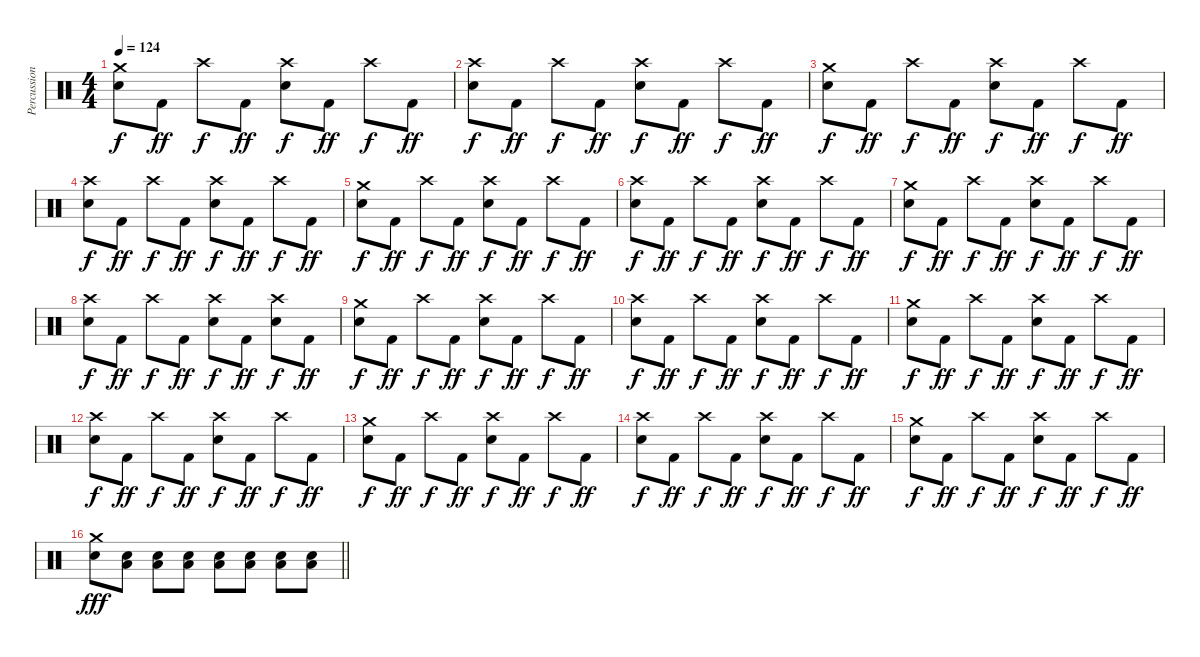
\track ("Percussion" "Percussion") {instrument percussion}
\staff {score}
\articulation defaults
\ts (4 4)
\tempo 124
\clef neutral
\ks c
("Crash medium (hit)" "Electric Snare (hit)").8{dy f} "Kick (hit) 2".8{dy ff} "Crash high (hit)".8{dy f} "Kick (hit) 2".8{dy ff} ("Crash high (hit)" "Electric Snare (hit)").8{dy f} "Kick (hit) 2".8{dy ff} "Crash high (hit)".8{dy f} "Kick (hit) 2".8{dy ff} |
("Crash high (hit)" "Electric Snare (hit)").8{dy f} "Kick (hit) 2".8{dy ff} "Crash high (hit)".8{dy f} "Kick (hit) 2".8{dy ff} ("Crash high (hit)" "Electric Snare (hit)").8{dy f} "Kick (hit) 2".8{dy ff} "Crash high (hit)".8{dy f} "Kick (hit) 2".8{dy ff} |
("Crash medium (hit)" "Electric Snare (hit)").8{dy f} "Kick (hit) 2".8{dy ff} "Crash high (hit)".8{dy f} "Kick (hit) 2".8{dy ff} ("Crash high (hit)" "Electric Snare (hit)").8{dy f} "Kick (hit) 2".8{dy ff} "Crash high (hit)".8{dy f} "Kick (hit) 2".8{dy ff} |
("Crash high (hit)" "Electric Snare (hit)").8{dy f} "Kick (hit) 2".8{dy ff} "Crash high (hit)".8{dy f} "Kick (hit) 2".8{dy ff} ("Crash high (hit)" "Electric Snare (hit)").8{dy f} "Kick (hit) 2".8{dy ff} "Crash high (hit)".8{dy f} "Kick (hit) 2".8{dy ff} |
("Crash medium (hit)" "Electric Snare (hit)").8{dy f} "Kick (hit) 2".8{dy ff} "Crash high (hit)".8{dy f} "Kick (hit) 2".8{dy ff} ("Crash high (hit)" "Electric Snare (hit)").8{dy f} "Kick (hit) 2".8{dy ff} "Crash high (hit)".8{dy f} "Kick (hit) 2".8{dy ff} |
("Crash high (hit)" "Electric Snare (hit)").8{dy f} "Kick (hit) 2".8{dy ff} "Crash high (hit)".8{dy f} "Kick (hit) 2".8{dy ff} ("Crash high (hit)" "Electric Snare (hit)").8{dy f} "Kick (hit) 2".8{dy ff} "Crash high (hit)".8{dy f} "Kick (hit) 2".8{dy ff} |
("Crash medium (hit)" "Electric Snare (hit)").8{dy f} "Kick (hit) 2".8{dy ff} "Crash high (hit)".8{dy f} "Kick (hit) 2".8{dy ff} ("Crash high (hit)" "Electric Snare (hit)").8{dy f} "Kick (hit) 2".8{dy ff} "Crash high (hit)".8{dy f} "Kick (hit) 2".8{dy ff} |
("Crash high (hit)" "Electric Snare (hit)").8{dy f} "Kick (hit) 2".8{dy ff} "Crash high (hit)".8{dy f} "Kick (hit) 2".8{dy ff} ("Crash high (hit)" "Electric Snare (hit)").8{dy f} "Kick (hit) 2".8{dy ff} ("Crash high (hit)" "Electric Snare (hit)").8{dy f} "Kick (hit) 2".8{dy ff} |
("Crash medium (hit)" "Electric Snare (hit)").8{dy f} "Kick (hit) 2".8{dy ff} "Crash high (hit)".8{dy f} "Kick (hit) 2".8{dy ff} ("Crash high (hit)" "Electric Snare (hit)").8{dy f} "Kick (hit) 2".8{dy ff} "Crash high (hit)".8{dy f} "Kick (hit) 2".8{dy ff} |
("Crash high (hit)" "Electric Snare (hit)").8{dy f} "Kick (hit) 2".8{dy ff} "Crash high (hit)".8{dy f} "Kick (hit) 2".8{dy ff} ("Crash high (hit)" "Electric Snare (hit)").8{dy f} "Kick (hit) 2".8{dy ff} "Crash high (hit)".8{dy f} "Kick (hit) 2".8{dy ff} |
("Crash medium (hit)" "Electric Snare (hit)").8{dy f} "Kick (hit) 2".8{dy ff} "Crash high (hit)".8{dy f} "Kick (hit) 2".8{dy ff} ("Crash high (hit)" "Electric Snare (hit)").8{dy f} "Kick (hit) 2".8{dy ff} "Crash high (hit)".8{dy f} "Kick (hit) 2".8{dy ff} |
("Crash high (hit)" "Electric Snare (hit)").8{dy f} "Kick (hit) 2".8{dy ff} "Crash high (hit)".8{dy f} "Kick (hit) 2".8{dy ff} ("Crash high (hit)" "Electric Snare (hit)").8{dy f} "Kick (hit) 2".8{dy ff} "Crash high (hit)".8{dy f} "Kick (hit) 2".8{dy ff} |
("Crash medium (hit)" "Electric Snare (hit)").8{dy f} "Kick (hit) 2".8{dy ff} "Crash high (hit)".8{dy f} "Kick (hit) 2".8{dy ff} ("Crash high (hit)" "Electric Snare (hit)").8{dy f} "Kick (hit) 2".8{dy ff} "Crash high (hit)".8{dy f} "Kick (hit) 2".8{dy ff} |
("Crash high (hit)" "Electric Snare (hit)").8{dy f} "Kick (hit) 2".8{dy ff} "Crash high (hit)".8{dy f} "Kick (hit) 2".8{dy ff} ("Crash high (hit)" "Electric Snare (hit)").8{dy f} "Kick (hit) 2".8{dy ff} "Crash high (hit)".8{dy f} "Kick (hit) 2".8{dy ff} |
("Crash medium (hit)" "Electric Snare (hit)").8{dy f} "Kick (hit) 2".8{dy ff} "Crash high (hit)".8{dy f} "Kick (hit) 2".8{dy ff} ("Crash high (hit)" "Electric Snare (hit)").8{dy f} "Kick (hit) 2".8{dy ff} "Crash high (hit)".8{dy f} "Kick (hit) 2".8{dy ff} |
\barLineRight lightlight
("Crash medium (hit)" "Electric Snare (hit)").8{dy fff} ("Electric Snare (hit)" "Low Floor Tom (hit)").8 ("Electric Snare (hit)" "Low Floor Tom (hit)").8 ("Electric Snare (hit)" "Low Floor Tom (hit)").8 ("Electric Snare (hit)" "Low Floor Tom (hit)").8 ("Electric Snare (hit)" "Low Floor Tom (hit)").8 ("Electric Snare (hit)" "Low Floor Tom (hit)").8 ("Electric Snare (hit)" "Low Floor Tom (hit)").8
